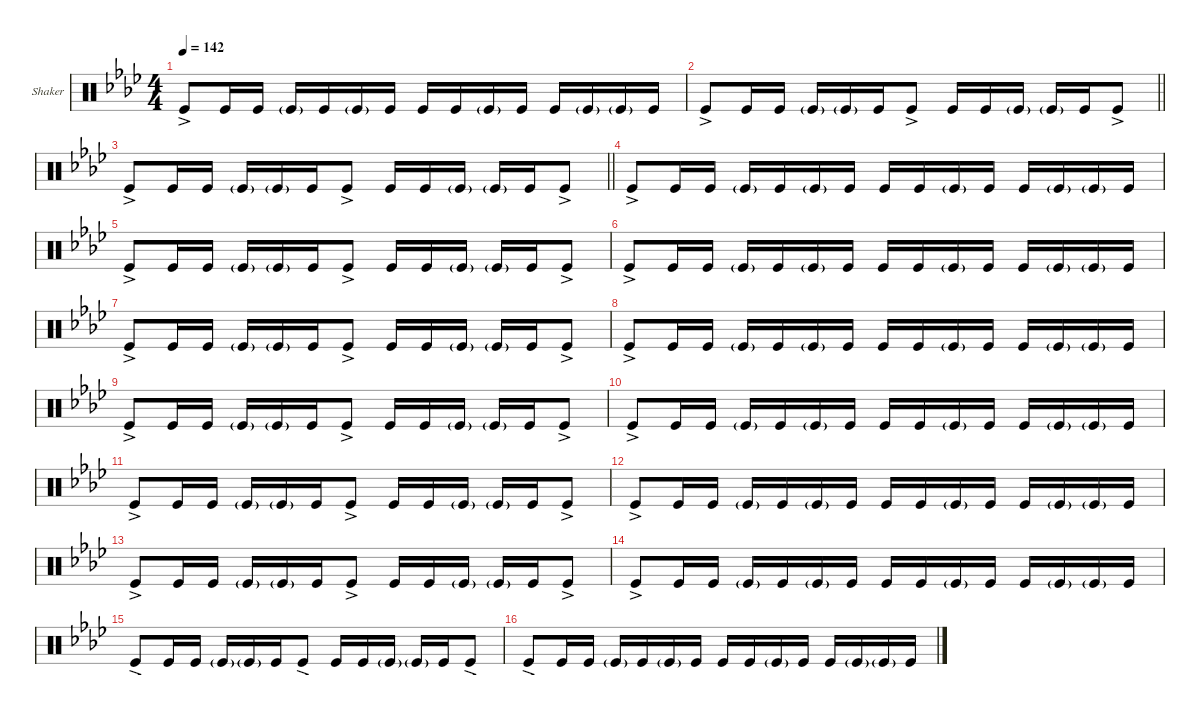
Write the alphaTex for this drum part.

\defaultSystemsLayout 4
\hideDynamics
\bracketExtendMode groupsimilarinstruments
\firstSystemTrackNameOrientation horizontal
\otherSystemsTrackNameOrientation horizontal
\track ("Shaker" "Shaker") {multiBarRest instrument percussion}
\staff {score}
\articulation defaults
\ts (4 4)
\tempo 142
\clef neutral
\ks ab "Kick (hit)"{ac}.8{dy ff} "Kick (hit)".16 "Kick (hit)".16 "Kick (hit)"{g}.16 "Kick (hit)".16 "Kick (hit)"{g}.16 "Kick (hit)".16 "Kick (hit)".16 "Kick (hit)".16 "Kick (hit)"{g}.16 "Kick (hit)".16 "Kick (hit)".16 "Kick (hit)"{g}.16 "Kick (hit)"{g}.16 "Kick (hit)".16
|
\barLineRight lightlight "Kick (hit)"{ac}.8 "Kick (hit)".16 "Kick (hit)".16 "Kick (hit)"{g}.16 "Kick (hit)"{g}.16 "Kick (hit)".16 "Kick (hit)"{ac}.8 "Kick (hit)".16 "Kick (hit)".16 "Kick (hit)"{g}.16 "Kick (hit)"{g}.16 "Kick (hit)".16 "Kick (hit)"{ac}.8
|
\barLineRight lightlight "Kick (hit)"{ac}.8 "Kick (hit)".16 "Kick (hit)".16 "Kick (hit)"{g}.16 "Kick (hit)"{g}.16 "Kick (hit)".16 "Kick (hit)"{ac}.8 "Kick (hit)".16 "Kick (hit)".16 "Kick (hit)"{g}.16 "Kick (hit)"{g}.16 "Kick (hit)".16 "Kick (hit)"{ac}.8
|
"Kick (hit)"{ac}.8 "Kick (hit)".16 "Kick (hit)".16 "Kick (hit)"{g}.16 "Kick (hit)".16 "Kick (hit)"{g}.16 "Kick (hit)".16 "Kick (hit)".16 "Kick (hit)".16 "Kick (hit)"{g}.16 "Kick (hit)".16 "Kick (hit)".16 "Kick (hit)"{g}.16 "Kick (hit)"{g}.16 "Kick (hit)".16 |
"Kick (hit)"{ac}.8 "Kick (hit)".16 "Kick (hit)".16 "Kick (hit)"{g}.16 "Kick (hit)"{g}.16 "Kick (hit)".16 "Kick (hit)"{ac}.8 "Kick (hit)".16 "Kick (hit)".16 "Kick (hit)"{g}.16 "Kick (hit)"{g}.16 "Kick (hit)".16 "Kick (hit)"{ac}.8 |
"Kick (hit)"{ac}.8 "Kick (hit)".16 "Kick (hit)".16 "Kick (hit)"{g}.16 "Kick (hit)".16 "Kick (hit)"{g}.16 "Kick (hit)".16 "Kick (hit)".16 "Kick (hit)".16 "Kick (hit)"{g}.16 "Kick (hit)".16 "Kick (hit)".16 "Kick (hit)"{g}.16 "Kick (hit)"{g}.16 "Kick (hit)".16 |
"Kick (hit)"{ac}.8 "Kick (hit)".16 "Kick (hit)".16 "Kick (hit)"{g}.16 "Kick (hit)"{g}.16 "Kick (hit)".16 "Kick (hit)"{ac}.8 "Kick (hit)".16 "Kick (hit)".16 "Kick (hit)"{g}.16 "Kick (hit)"{g}.16 "Kick (hit)".16 "Kick (hit)"{ac}.8 |
"Kick (hit)"{ac}.8 "Kick (hit)".16 "Kick (hit)".16 "Kick (hit)"{g}.16 "Kick (hit)".16 "Kick (hit)"{g}.16 "Kick (hit)".16 "Kick (hit)".16 "Kick (hit)".16 "Kick (hit)"{g}.16 "Kick (hit)".16 "Kick (hit)".16 "Kick (hit)"{g}.16 "Kick (hit)"{g}.16 "Kick (hit)".16 |
"Kick (hit)"{ac}.8 "Kick (hit)".16 "Kick (hit)".16 "Kick (hit)"{g}.16 "Kick (hit)"{g}.16 "Kick (hit)".16 "Kick (hit)"{ac}.8 "Kick (hit)".16 "Kick (hit)".16 "Kick (hit)"{g}.16 "Kick (hit)"{g}.16 "Kick (hit)".16 "Kick (hit)"{ac}.8 |
"Kick (hit)"{ac}.8 "Kick (hit)".16 "Kick (hit)".16 "Kick (hit)"{g}.16 "Kick (hit)".16 "Kick (hit)"{g}.16 "Kick (hit)".16 "Kick (hit)".16 "Kick (hit)".16 "Kick (hit)"{g}.16 "Kick (hit)".16 "Kick (hit)".16 "Kick (hit)"{g}.16 "Kick (hit)"{g}.16 "Kick (hit)".16 |
"Kick (hit)"{ac}.8 "Kick (hit)".16 "Kick (hit)".16 "Kick (hit)"{g}.16 "Kick (hit)"{g}.16 "Kick (hit)".16 "Kick (hit)"{ac}.8 "Kick (hit)".16 "Kick (hit)".16 "Kick (hit)"{g}.16 "Kick (hit)"{g}.16 "Kick (hit)".16 "Kick (hit)"{ac}.8 |
"Kick (hit)"{ac}.8 "Kick (hit)".16 "Kick (hit)".16 "Kick (hit)"{g}.16 "Kick (hit)".16 "Kick (hit)"{g}.16 "Kick (hit)".16 "Kick (hit)".16 "Kick (hit)".16 "Kick (hit)"{g}.16 "Kick (hit)".16 "Kick (hit)".16 "Kick (hit)"{g}.16 "Kick (hit)"{g}.16 "Kick (hit)".16 |
"Kick (hit)"{ac}.8 "Kick (hit)".16 "Kick (hit)".16 "Kick (hit)"{g}.16 "Kick (hit)"{g}.16 "Kick (hit)".16 "Kick (hit)"{ac}.8 "Kick (hit)".16 "Kick (hit)".16 "Kick (hit)"{g}.16 "Kick (hit)"{g}.16 "Kick (hit)".16 "Kick (hit)"{ac}.8 |
"Kick (hit)"{ac}.8 "Kick (hit)".16 "Kick (hit)".16 "Kick (hit)"{g}.16 "Kick (hit)".16 "Kick (hit)"{g}.16 "Kick (hit)".16 "Kick (hit)".16 "Kick (hit)".16 "Kick (hit)"{g}.16 "Kick (hit)".16 "Kick (hit)".16 "Kick (hit)"{g}.16 "Kick (hit)"{g}.16 "Kick (hit)".16 |
"Kick (hit)"{ac}.8 "Kick (hit)".16 "Kick (hit)".16 "Kick (hit)"{g}.16 "Kick (hit)"{g}.16 "Kick (hit)".16 "Kick (hit)"{ac}.8 "Kick (hit)".16 "Kick (hit)".16 "Kick (hit)"{g}.16 "Kick (hit)"{g}.16 "Kick (hit)".16 "Kick (hit)"{ac}.8 |
"Kick (hit)"{ac}.8 "Kick (hit)".16 "Kick (hit)".16 "Kick (hit)"{g}.16 "Kick (hit)".16 "Kick (hit)"{g}.16 "Kick (hit)".16 "Kick (hit)".16 "Kick (hit)".16 "Kick (hit)"{g}.16 "Kick (hit)".16 "Kick (hit)".16 "Kick (hit)"{g}.16 "Kick (hit)"{g}.16 "Kick (hit)".16
